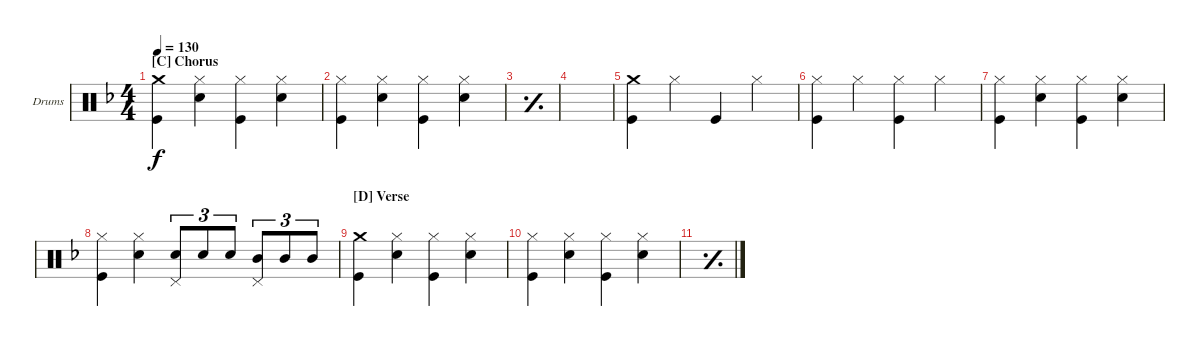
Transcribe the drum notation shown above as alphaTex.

\defaultSystemsLayout 4
\bracketExtendMode groupsimilarinstruments
\firstSystemTrackNameOrientation horizontal
\otherSystemsTrackNameOrientation horizontal
\track ("Matt Helders" "Drums") {instrument percussion}
\staff {score}
\articulation defaults
\ts (4 4)
\section ("C" "Chorus")
\tempo 130
\clef neutral
\ks f
("Kick (hit)" "Crash medium (hit)").4{dy f} ("Snare (hit) 2" "Hi-Hat (closed)").4 ("Kick (hit)" "Hi-Hat (closed)").4 ("Snare (hit) 2" "Hi-Hat (closed)").4 |
("Kick (hit)" "Hi-Hat (closed)").4 ("Snare (hit) 2" "Hi-Hat (closed)").4 ("Kick (hit)" "Hi-Hat (closed)").4 ("Snare (hit) 2" "Hi-Hat (closed)").4 |
\simile simple
|
|
\simile none
("Kick (hit)" "Crash medium (hit)").4 "Hi-Hat (closed)".4 "Kick (hit)".4 "Hi-Hat (closed)".4 |
("Kick (hit)" "Hi-Hat (closed)").4 "Hi-Hat (closed)".4 ("Kick (hit)" "Hi-Hat (closed)").4 "Hi-Hat (closed)".4 |
("Kick (hit)" "Hi-Hat (closed)").4 ("Snare (hit) 2" "Hi-Hat (closed)").4 ("Kick (hit)" "Hi-Hat (closed)").4 ("Snare (hit) 2" "Hi-Hat (closed)").4 |
("Kick (hit)" "Hi-Hat (closed)").4 ("Snare (hit) 2" "Hi-Hat (closed)").4 ("Snare (hit) 2" "Pedal Hi-Hat (hit)").8{tu (3 2)} "Snare (hit) 2".8{tu (3 2)} "Snare (hit) 2".8{tu (3 2)} ("Mid Tom (hit)" "Pedal Hi-Hat (hit)").8{tu (3 2)} "Mid Tom (hit)".8{tu (3 2)} "Mid Tom (hit)".8{tu (3 2)} |
\section ("D" "Verse")
("Kick (hit)" "Crash medium (hit)").4 ("Snare (hit) 2" "Hi-Hat (closed)").4 ("Kick (hit)" "Hi-Hat (closed)").4 ("Snare (hit) 2" "Hi-Hat (closed)").4 |
("Kick (hit)" "Hi-Hat (closed)").4 ("Snare (hit) 2" "Hi-Hat (closed)").4 ("Kick (hit)" "Hi-Hat (closed)").4 ("Snare (hit) 2" "Hi-Hat (closed)").4 |
\simile simple
